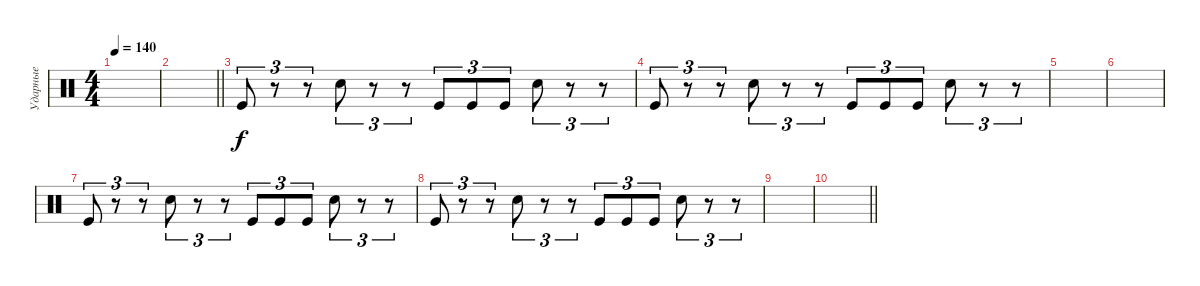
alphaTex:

\track ("Ударные" "Ударные") {instrument percussion}
\staff {score}
\articulation defaults
\ts (4 4)
\tempo 140
\clef neutral
\ks c
|
\barLineRight lightlight
|
"Kick (hit)".8{tu (3 2)} r.8{tu (3 2)} r.8{tu (3 2)} "Electric Snare (hit)".8{tu (3 2)} r.8{tu (3 2)} r.8{tu (3 2)} "Kick (hit)".8{tu (3 2)} "Kick (hit)".8{tu (3 2)} "Kick (hit)".8{tu (3 2)} "Electric Snare (hit)".8{tu (3 2)} r.8{tu (3 2)} r.8{tu (3 2)} |
"Kick (hit)".8{tu (3 2)} r.8{tu (3 2)} r.8{tu (3 2)} "Electric Snare (hit)".8{tu (3 2)} r.8{tu (3 2)} r.8{tu (3 2)} "Kick (hit)".8{tu (3 2)} "Kick (hit)".8{tu (3 2)} "Kick (hit)".8{tu (3 2)} "Electric Snare (hit)".8{tu (3 2)} r.8{tu (3 2)} r.8{tu (3 2)} |
|
|
"Kick (hit)".8{tu (3 2)} r.8{tu (3 2)} r.8{tu (3 2)} "Electric Snare (hit)".8{tu (3 2)} r.8{tu (3 2)} r.8{tu (3 2)} "Kick (hit)".8{tu (3 2)} "Kick (hit)".8{tu (3 2)} "Kick (hit)".8{tu (3 2)} "Electric Snare (hit)".8{tu (3 2)} r.8{tu (3 2)} r.8{tu (3 2)} |
"Kick (hit)".8{tu (3 2)} r.8{tu (3 2)} r.8{tu (3 2)} "Electric Snare (hit)".8{tu (3 2)} r.8{tu (3 2)} r.8{tu (3 2)} "Kick (hit)".8{tu (3 2)} "Kick (hit)".8{tu (3 2)} "Kick (hit)".8{tu (3 2)} "Electric Snare (hit)".8{tu (3 2)} r.8{tu (3 2)} r.8{tu (3 2)} |
|
\barLineRight lightlight
